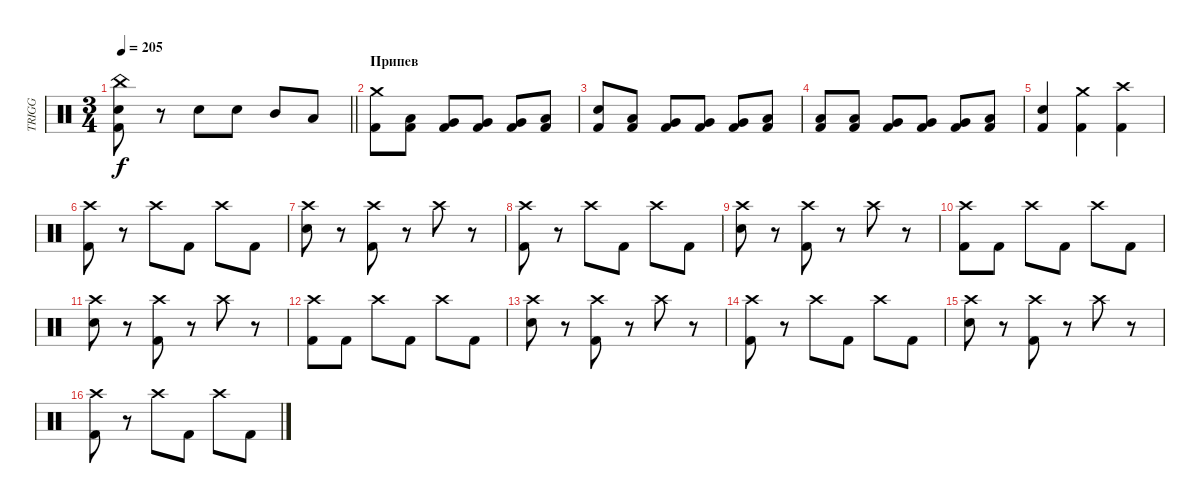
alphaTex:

\track ("TRIGG" "TRIGG") {instrument percussion}
\staff {score}
\articulation defaults
\ts (3 4)
\tempo 205
\clef neutral
\barLineRight lightlight
\ks c
("China (hit)" "Electric Snare (hit)" "Kick (hit) 2").8{dy f} r.8 "Electric Snare (hit)".8 "Electric Snare (hit)".8 "Mid Tom (hit)".8 "Low Tom (hit)".8 |
\section ("" "Припев")
("Crash medium (hit)" "Kick (hit) 2").8 ("Low Tom (hit)" "Kick (hit) 2").8 ("Very Low Tom (hit)" "Kick (hit) 2").8 ("Very Low Tom (hit)" "Kick (hit) 2").8 ("Very Low Tom (hit)" "Kick (hit) 2").8 ("Low Tom (hit)" "Kick (hit) 2").8 |
("Electric Snare (hit)" "Kick (hit) 2").8 ("Low Tom (hit)" "Kick (hit) 2").8 ("Very Low Tom (hit)" "Kick (hit) 2").8 ("Very Low Tom (hit)" "Kick (hit) 2").8 ("Very Low Tom (hit)" "Kick (hit) 2").8 ("Low Tom (hit)" "Kick (hit) 2").8 |
("Low Tom (hit)" "Kick (hit) 2").8 ("Low Tom (hit)" "Kick (hit) 2").8 ("Very Low Tom (hit)" "Kick (hit) 2").8 ("Very Low Tom (hit)" "Kick (hit) 2").8 ("Very Low Tom (hit)" "Kick (hit) 2").8 ("Low Tom (hit)" "Kick (hit) 2").8 |
("Electric Snare (hit)" "Kick (hit) 2").4 ("Kick (hit) 2" "Crash medium (hit)").4 ("Kick (hit) 2" "Crash high (hit)").4 |
("Crash high (hit)" "Kick (hit) 2").8 r.8 "Crash high (hit)".8 "Kick (hit) 2".8 "Crash high (hit)".8 "Kick (hit) 2".8 |
("Crash high (hit)" "Electric Snare (hit)").8 r.8 ("Crash high (hit)" "Kick (hit) 2").8 r.8 "Crash high (hit)".8 r.8 |
("Crash high (hit)" "Kick (hit) 2").8 r.8 "Crash high (hit)".8 "Kick (hit) 2".8 "Crash high (hit)".8 "Kick (hit) 2".8 |
("Crash high (hit)" "Electric Snare (hit)").8 r.8 ("Crash high (hit)" "Kick (hit) 2").8 r.8 "Crash high (hit)".8 r.8 |
("Crash high (hit)" "Kick (hit) 2").8 "Kick (hit) 2".8 "Crash high (hit)".8 "Kick (hit) 2".8 "Crash high (hit)".8 "Kick (hit) 2".8 |
("Crash high (hit)" "Electric Snare (hit)").8 r.8 ("Crash high (hit)" "Kick (hit) 2").8 r.8 "Crash high (hit)".8 r.8 |
("Crash high (hit)" "Kick (hit) 2").8 "Kick (hit) 2".8 "Crash high (hit)".8 "Kick (hit) 2".8 "Crash high (hit)".8 "Kick (hit) 2".8 |
("Crash high (hit)" "Electric Snare (hit)").8 r.8 ("Crash high (hit)" "Kick (hit) 2").8 r.8 "Crash high (hit)".8 r.8 |
("Crash high (hit)" "Kick (hit) 2").8 r.8 "Crash high (hit)".8 "Kick (hit) 2".8 "Crash high (hit)".8 "Kick (hit) 2".8 |
("Crash high (hit)" "Electric Snare (hit)").8 r.8 ("Crash high (hit)" "Kick (hit) 2").8 r.8 "Crash high (hit)".8 r.8 |
("Crash high (hit)" "Kick (hit) 2").8 r.8 "Crash high (hit)".8 "Kick (hit) 2".8 "Crash high (hit)".8 "Kick (hit) 2".8
